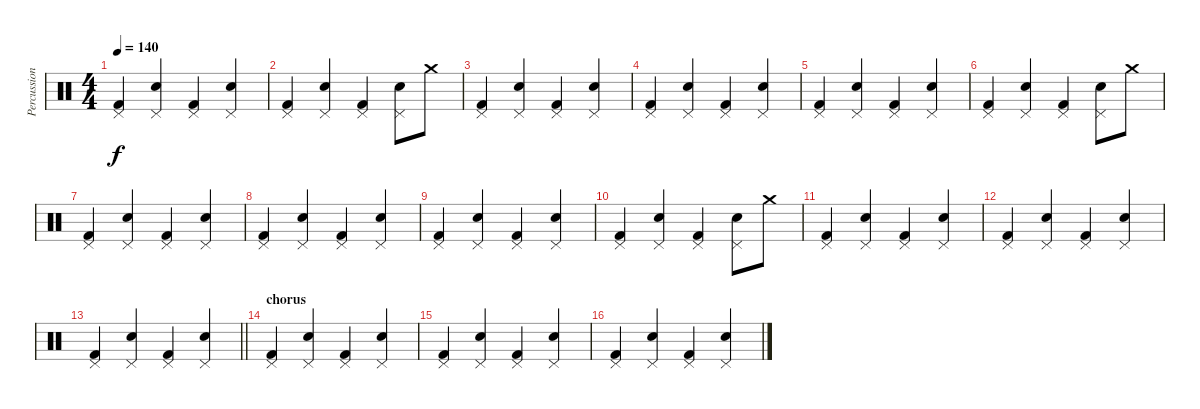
\track ("Percussion" "Percussion") {instrument percussion}
\staff {score}
\articulation defaults
\ts (4 4)
\tempo 140
\clef neutral
\ks c
("Kick (hit) 2" "Pedal Hi-Hat (hit)").4{dy f} ("Snare (hit) 2" "Pedal Hi-Hat (hit)").4 ("Kick (hit) 2" "Pedal Hi-Hat (hit)").4 ("Snare (hit) 2" "Pedal Hi-Hat (hit)").4 |
("Kick (hit) 2" "Pedal Hi-Hat (hit)").4 ("Snare (hit) 2" "Pedal Hi-Hat (hit)").4 ("Kick (hit) 2" "Pedal Hi-Hat (hit)").4 ("Snare (hit) 2" "Pedal Hi-Hat (hit)").8 "Crash medium (hit)".8 |
("Kick (hit) 2" "Pedal Hi-Hat (hit)").4 ("Snare (hit) 2" "Pedal Hi-Hat (hit)").4 ("Kick (hit) 2" "Pedal Hi-Hat (hit)").4 ("Snare (hit) 2" "Pedal Hi-Hat (hit)").4 |
("Kick (hit) 2" "Pedal Hi-Hat (hit)").4 ("Snare (hit) 2" "Pedal Hi-Hat (hit)").4 ("Kick (hit) 2" "Pedal Hi-Hat (hit)").4 ("Snare (hit) 2" "Pedal Hi-Hat (hit)").4 |
("Kick (hit) 2" "Pedal Hi-Hat (hit)").4 ("Snare (hit) 2" "Pedal Hi-Hat (hit)").4 ("Kick (hit) 2" "Pedal Hi-Hat (hit)").4 ("Snare (hit) 2" "Pedal Hi-Hat (hit)").4 |
("Kick (hit) 2" "Pedal Hi-Hat (hit)").4 ("Snare (hit) 2" "Pedal Hi-Hat (hit)").4 ("Kick (hit) 2" "Pedal Hi-Hat (hit)").4 ("Snare (hit) 2" "Pedal Hi-Hat (hit)").8 "Crash medium (hit)".8 |
("Kick (hit) 2" "Pedal Hi-Hat (hit)").4 ("Snare (hit) 2" "Pedal Hi-Hat (hit)").4 ("Kick (hit) 2" "Pedal Hi-Hat (hit)").4 ("Snare (hit) 2" "Pedal Hi-Hat (hit)").4 |
("Kick (hit) 2" "Pedal Hi-Hat (hit)").4 ("Snare (hit) 2" "Pedal Hi-Hat (hit)").4 ("Kick (hit) 2" "Pedal Hi-Hat (hit)").4 ("Snare (hit) 2" "Pedal Hi-Hat (hit)").4 |
("Kick (hit) 2" "Pedal Hi-Hat (hit)").4 ("Snare (hit) 2" "Pedal Hi-Hat (hit)").4 ("Kick (hit) 2" "Pedal Hi-Hat (hit)").4 ("Snare (hit) 2" "Pedal Hi-Hat (hit)").4 |
("Kick (hit) 2" "Pedal Hi-Hat (hit)").4 ("Snare (hit) 2" "Pedal Hi-Hat (hit)").4 ("Kick (hit) 2" "Pedal Hi-Hat (hit)").4 ("Snare (hit) 2" "Pedal Hi-Hat (hit)").8 "Crash medium (hit)".8 |
("Kick (hit) 2" "Pedal Hi-Hat (hit)").4 ("Snare (hit) 2" "Pedal Hi-Hat (hit)").4 ("Kick (hit) 2" "Pedal Hi-Hat (hit)").4 ("Snare (hit) 2" "Pedal Hi-Hat (hit)").4 |
("Kick (hit) 2" "Pedal Hi-Hat (hit)").4 ("Snare (hit) 2" "Pedal Hi-Hat (hit)").4 ("Kick (hit) 2" "Pedal Hi-Hat (hit)").4 ("Snare (hit) 2" "Pedal Hi-Hat (hit)").4 |
\barLineRight lightlight
("Kick (hit) 2" "Pedal Hi-Hat (hit)").4 ("Snare (hit) 2" "Pedal Hi-Hat (hit)").4 ("Kick (hit) 2" "Pedal Hi-Hat (hit)").4 ("Snare (hit) 2" "Pedal Hi-Hat (hit)").4 |
\section ("" "chorus")
("Kick (hit) 2" "Pedal Hi-Hat (hit)").4 ("Snare (hit) 2" "Pedal Hi-Hat (hit)").4 ("Kick (hit) 2" "Pedal Hi-Hat (hit)").4 ("Snare (hit) 2" "Pedal Hi-Hat (hit)").4 |
("Kick (hit) 2" "Pedal Hi-Hat (hit)").4 ("Snare (hit) 2" "Pedal Hi-Hat (hit)").4 ("Kick (hit) 2" "Pedal Hi-Hat (hit)").4 ("Snare (hit) 2" "Pedal Hi-Hat (hit)").4 |
("Kick (hit) 2" "Pedal Hi-Hat (hit)").4 ("Snare (hit) 2" "Pedal Hi-Hat (hit)").4 ("Kick (hit) 2" "Pedal Hi-Hat (hit)").4 ("Snare (hit) 2" "Pedal Hi-Hat (hit)").4
